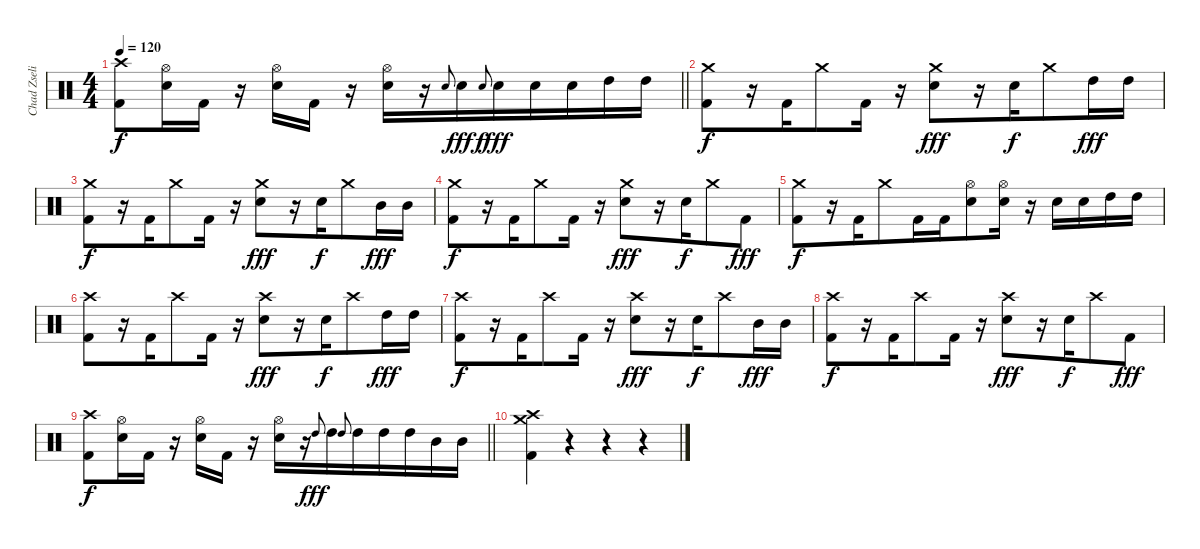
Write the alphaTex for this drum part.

\track ("Chad Zseliga (Drums)" "Chad Zseli") {instrument percussion}
\staff {score}
\articulation defaults
\ts (4 4)
\tempo 120
\clef neutral
\barLineRight lightlight
\ks c
("Crash high (hit)" "Kick (hit) 2").8{dy f} ("Hi-Hat (open)" "Snare (hit) 2").16 "Kick (hit) 2".16 r.16 ("Hi-Hat (open)" "Snare (hit) 2").16 "Kick (hit) 2".16 r.16 ("Hi-Hat (open)" "Snare (hit) 2").16 r.16 "Snare (hit) 2".8{gr onbeat} "Snare (hit) 2".16{dy fff} "Snare (hit) 2".8{gr onbeat dy f} "Snare (hit) 2".16{dy fff beam merge} "Snare (hit) 2".16 "Snare (hit) 2".16 "High Tom (hit)".16 "High Tom (hit)".16 |
("Crash medium (hit)" "Kick (hit) 2").8{dy f} r.16 "Kick (hit) 2".16{beam merge} "Crash medium (hit)".8 "Kick (hit) 2".16 r.16 ("Crash medium (hit)" "Snare (hit) 2").8{dy fff} r.16 "Snare (hit) 2".16{dy f beam merge} "Crash medium (hit)".8 "High Tom (hit)".16{dy fff} "High Tom (hit)".16 |
("Crash medium (hit)" "Kick (hit) 2").8{dy f} r.16 "Kick (hit) 2".16{beam merge} "Crash medium (hit)".8 "Kick (hit) 2".16 r.16 ("Crash medium (hit)" "Snare (hit) 2").8{dy fff} r.16 "Snare (hit) 2".16{dy f beam merge} "Crash medium (hit)".8 "Mid Tom (hit)".16{dy fff} "Mid Tom (hit)".16 |
("Crash medium (hit)" "Kick (hit) 2").8{dy f} r.16 "Kick (hit) 2".16{beam merge} "Crash medium (hit)".8 "Kick (hit) 2".16 r.16 ("Crash medium (hit)" "Snare (hit) 2").8{dy fff} r.16 "Snare (hit) 2".16{dy f beam merge} "Crash medium (hit)".8 "Kick (hit) 2".8{dy fff} |
("Crash medium (hit)" "Kick (hit) 2").8{dy f} r.16 "Kick (hit) 2".16{beam merge} "Crash medium (hit)".8 "Kick (hit) 2".16 "Kick (hit) 2".16{beam merge} ("Hi-Hat (open)" "Snare (hit) 2").8 ("Hi-Hat (open)" "Snare (hit) 2").16 r.16 "Snare (hit) 2".16 "Snare (hit) 2".16 "High Tom (hit)".16 "High Tom (hit)".16 |
("Crash high (hit)" "Kick (hit) 2").8 r.16 "Kick (hit) 2".16{beam merge} "Crash high (hit)".8 "Kick (hit) 2".16 r.16 ("Crash high (hit)" "Snare (hit) 2").8{dy fff} r.16 "Snare (hit) 2".16{dy f beam merge} "Crash high (hit)".8 "High Tom (hit)".16{dy fff} "High Tom (hit)".16 |
("Crash high (hit)" "Kick (hit) 2").8{dy f} r.16 "Kick (hit) 2".16{beam merge} "Crash high (hit)".8 "Kick (hit) 2".16 r.16 ("Crash high (hit)" "Snare (hit) 2").8{dy fff} r.16 "Snare (hit) 2".16{dy f beam merge} "Crash high (hit)".8 "Mid Tom (hit)".16{dy fff} "Mid Tom (hit)".16 |
("Crash high (hit)" "Kick (hit) 2").8{dy f} r.16 "Kick (hit) 2".16{beam merge} "Crash high (hit)".8 "Kick (hit) 2".16 r.16 ("Crash high (hit)" "Snare (hit) 2").8{dy fff} r.16 "Snare (hit) 2".16{dy f beam merge} "Crash high (hit)".8 "Kick (hit) 2".8{dy fff} |
\barLineRight lightlight
("Crash high (hit)" "Kick (hit) 2").8{dy f} ("Hi-Hat (open)" "Snare (hit) 2").16 "Kick (hit) 2".16 r.16 ("Hi-Hat (open)" "Snare (hit) 2").16 "Kick (hit) 2".16 r.16 ("Hi-Hat (open)" "Snare (hit) 2").16 r.16 "High Tom (hit)".8{gr onbeat dy fff} "High Tom (hit)".16 "High Tom (hit)".8{gr onbeat} "High Tom (hit)".16{beam merge} "High Tom (hit)".16 "High Tom (hit)".16 "Mid Tom (hit)".16 "Mid Tom (hit)".16 |
("Crash high (hit)" "Crash medium (hit)" "Kick (hit) 2").4 r.4 r.4 r.4
